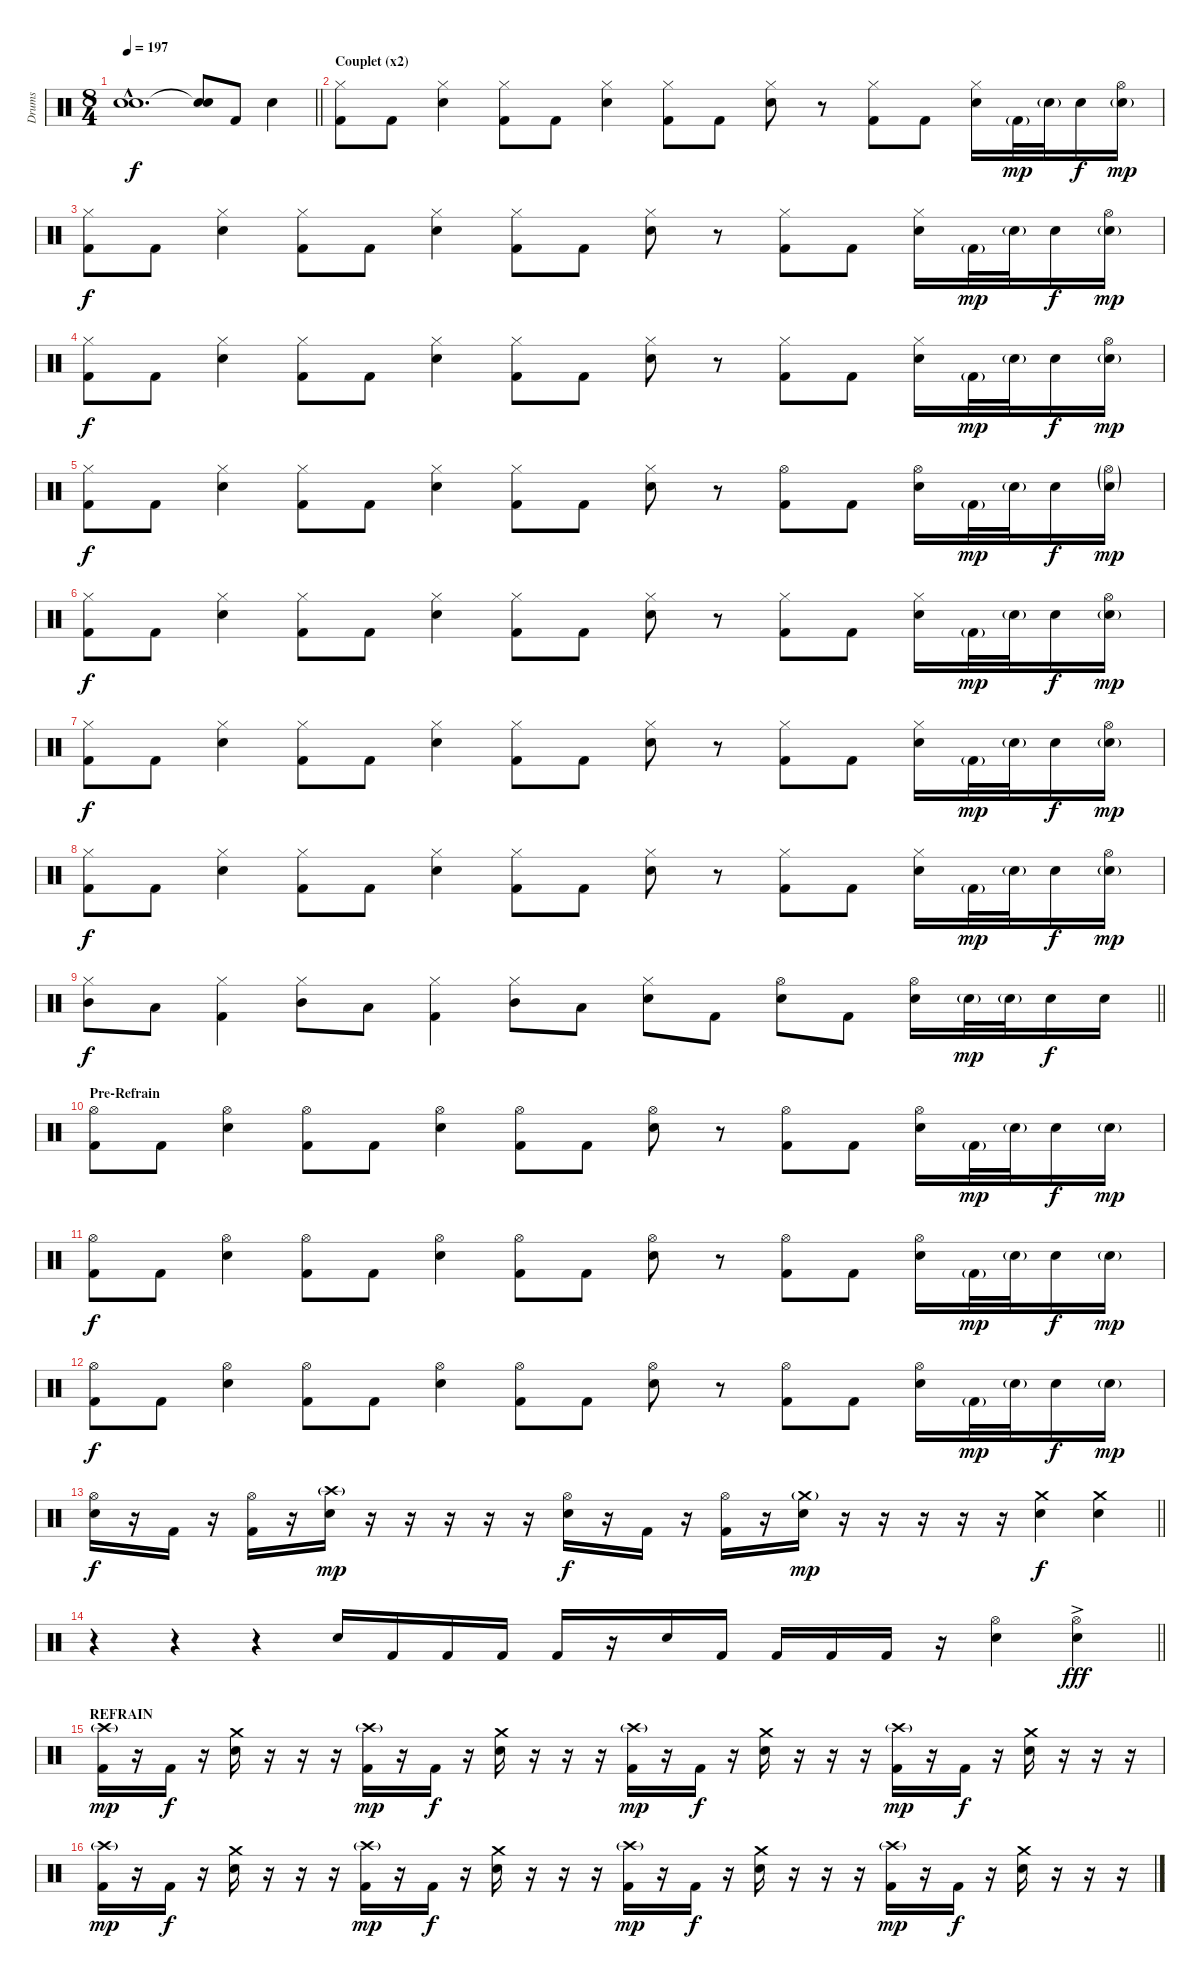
\track ("Drums" "Drums") {instrument percussion}
\staff {score}
\articulation defaults
\ts (8 4)
\tempo 197
\clef neutral
\barLineRight lightlight
\ks c
("Snare (hit)"{hac t} "Snare (hit)"{hac t}).1{d dy f} ("Snare (hit)"{t} "Electric Snare (hit)").8 "Kick (hit) 2".8 "Electric Snare (hit)".4 |
\section ("" "Couplet (x2)")
("Hi-Hat (closed)" "Kick (hit) 2").8 "Kick (hit) 2".8 ("Hi-Hat (closed)" "Electric Snare (hit)").4 ("Hi-Hat (closed)" "Kick (hit) 2").8 "Kick (hit) 2".8 ("Hi-Hat (closed)" "Electric Snare (hit)").4 ("Hi-Hat (closed)" "Kick (hit) 2").8 "Kick (hit) 2".8 ("Hi-Hat (closed)" "Electric Snare (hit)").8 r.8 ("Hi-Hat (closed)" "Kick (hit) 2").8 "Kick (hit) 2".8 ("Hi-Hat (closed)" "Electric Snare (hit)").16 "Kick (hit) 2"{g}.32{dy mp} "Electric Snare (hit)"{g}.32 "Electric Snare (hit)".16{dy f} ("Hi-Hat (open)" "Electric Snare (hit)"{g}).16{dy mp} |
("Hi-Hat (closed)" "Kick (hit) 2").8{dy f} "Kick (hit) 2".8 ("Hi-Hat (closed)" "Electric Snare (hit)").4 ("Hi-Hat (closed)" "Kick (hit) 2").8 "Kick (hit) 2".8 ("Hi-Hat (closed)" "Electric Snare (hit)").4 ("Hi-Hat (closed)" "Kick (hit) 2").8 "Kick (hit) 2".8 ("Hi-Hat (closed)" "Electric Snare (hit)").8 r.8 ("Hi-Hat (closed)" "Kick (hit) 2").8 "Kick (hit) 2".8 ("Hi-Hat (closed)" "Electric Snare (hit)").16 "Kick (hit) 2"{g}.32{dy mp} "Electric Snare (hit)"{g}.32 "Electric Snare (hit)".16{dy f} ("Hi-Hat (open)" "Electric Snare (hit)"{g}).16{dy mp} |
("Hi-Hat (closed)" "Kick (hit) 2").8{dy f} "Kick (hit) 2".8 ("Hi-Hat (closed)" "Electric Snare (hit)").4 ("Hi-Hat (closed)" "Kick (hit) 2").8 "Kick (hit) 2".8 ("Hi-Hat (closed)" "Electric Snare (hit)").4 ("Hi-Hat (closed)" "Kick (hit) 2").8 "Kick (hit) 2".8 ("Hi-Hat (closed)" "Electric Snare (hit)").8 r.8 ("Hi-Hat (closed)" "Kick (hit) 2").8 "Kick (hit) 2".8 ("Hi-Hat (closed)" "Electric Snare (hit)").16 "Kick (hit) 2"{g}.32{dy mp} "Electric Snare (hit)"{g}.32 "Electric Snare (hit)".16{dy f} ("Hi-Hat (open)" "Electric Snare (hit)"{g}).16{dy mp} |
("Hi-Hat (closed)" "Kick (hit) 2").8{dy f} "Kick (hit) 2".8 ("Hi-Hat (closed)" "Electric Snare (hit)").4 ("Hi-Hat (closed)" "Kick (hit) 2").8 "Kick (hit) 2".8 ("Hi-Hat (closed)" "Electric Snare (hit)").4 ("Hi-Hat (closed)" "Kick (hit) 2").8 "Kick (hit) 2".8 ("Hi-Hat (closed)" "Electric Snare (hit)").8 r.8 ("Hi-Hat (open)" "Kick (hit) 2").8 "Kick (hit) 2".8 ("Hi-Hat (open)" "Electric Snare (hit)").16 "Kick (hit) 2"{g}.32{dy mp} "Electric Snare (hit)"{g}.32 "Electric Snare (hit)".16{dy f} ("Hi-Hat (open)"{g} "Electric Snare (hit)"{g}).16{dy mp} |
("Hi-Hat (closed)" "Kick (hit) 2").8{dy f} "Kick (hit) 2".8 ("Hi-Hat (closed)" "Electric Snare (hit)").4 ("Hi-Hat (closed)" "Kick (hit) 2").8 "Kick (hit) 2".8 ("Hi-Hat (closed)" "Electric Snare (hit)").4 ("Hi-Hat (closed)" "Kick (hit) 2").8 "Kick (hit) 2".8 ("Hi-Hat (closed)" "Electric Snare (hit)").8 r.8 ("Hi-Hat (closed)" "Kick (hit) 2").8 "Kick (hit) 2".8 ("Hi-Hat (closed)" "Electric Snare (hit)").16 "Kick (hit) 2"{g}.32{dy mp} "Electric Snare (hit)"{g}.32 "Electric Snare (hit)".16{dy f} ("Hi-Hat (open)" "Electric Snare (hit)"{g}).16{dy mp} |
("Hi-Hat (closed)" "Kick (hit) 2").8{dy f} "Kick (hit) 2".8 ("Hi-Hat (closed)" "Electric Snare (hit)").4 ("Hi-Hat (closed)" "Kick (hit) 2").8 "Kick (hit) 2".8 ("Hi-Hat (closed)" "Electric Snare (hit)").4 ("Hi-Hat (closed)" "Kick (hit) 2").8 "Kick (hit) 2".8 ("Hi-Hat (closed)" "Electric Snare (hit)").8 r.8 ("Hi-Hat (closed)" "Kick (hit) 2").8 "Kick (hit) 2".8 ("Hi-Hat (closed)" "Electric Snare (hit)").16 "Kick (hit) 2"{g}.32{dy mp} "Electric Snare (hit)"{g}.32 "Electric Snare (hit)".16{dy f} ("Hi-Hat (open)" "Electric Snare (hit)"{g}).16{dy mp} |
("Hi-Hat (closed)" "Kick (hit) 2").8{dy f} "Kick (hit) 2".8 ("Hi-Hat (closed)" "Electric Snare (hit)").4 ("Hi-Hat (closed)" "Kick (hit) 2").8 "Kick (hit) 2".8 ("Hi-Hat (closed)" "Electric Snare (hit)").4 ("Hi-Hat (closed)" "Kick (hit) 2").8 "Kick (hit) 2".8 ("Hi-Hat (closed)" "Electric Snare (hit)").8 r.8 ("Hi-Hat (closed)" "Kick (hit) 2").8 "Kick (hit) 2".8 ("Hi-Hat (closed)" "Electric Snare (hit)").16 "Kick (hit) 2"{g}.32{dy mp} "Electric Snare (hit)"{g}.32 "Electric Snare (hit)".16{dy f} ("Hi-Hat (open)" "Electric Snare (hit)"{g}).16{dy mp} |
\barLineRight lightlight
("Hi-Hat (closed)" "Mid Tom (hit)").8{dy f} "Low Floor Tom (hit)".8 ("Hi-Hat (closed)" "Kick (hit) 2").4 ("Hi-Hat (closed)" "Mid Tom (hit)").8 "Low Floor Tom (hit)".8 ("Hi-Hat (closed)" "Kick (hit) 2").4 ("Hi-Hat (closed)" "Mid Tom (hit)").8 "Low Floor Tom (hit)".8 ("Hi-Hat (closed)" "Electric Snare (hit)").8 "Kick (hit) 2".8 ("Hi-Hat (open)" "Electric Snare (hit)").8 "Kick (hit) 2".8 ("Hi-Hat (open)" "Electric Snare (hit)").16 "Electric Snare (hit)"{g}.32{dy mp} "Electric Snare (hit)"{g}.32 "Electric Snare (hit)".16{dy f} "Electric Snare (hit)".16 |
\section ("" "Pre-Refrain")
("Hi-Hat (open)" "Kick (hit) 2").8 "Kick (hit) 2".8 ("Hi-Hat (open)" "Electric Snare (hit)").4 ("Hi-Hat (open)" "Kick (hit) 2").8 "Kick (hit) 2".8 ("Hi-Hat (open)" "Electric Snare (hit)").4 ("Hi-Hat (open)" "Kick (hit) 2").8 "Kick (hit) 2".8 ("Hi-Hat (open)" "Electric Snare (hit)").8 r.8 ("Hi-Hat (open)" "Kick (hit) 2").8 "Kick (hit) 2".8 ("Hi-Hat (open)" "Electric Snare (hit)").16 "Kick (hit) 2"{g}.32{dy mp} "Electric Snare (hit)"{g}.32 "Electric Snare (hit)".16{dy f} "Electric Snare (hit)"{g}.16{dy mp} |
("Hi-Hat (open)" "Kick (hit) 2").8{dy f} "Kick (hit) 2".8 ("Hi-Hat (open)" "Electric Snare (hit)").4 ("Hi-Hat (open)" "Kick (hit) 2").8 "Kick (hit) 2".8 ("Hi-Hat (open)" "Electric Snare (hit)").4 ("Hi-Hat (open)" "Kick (hit) 2").8 "Kick (hit) 2".8 ("Hi-Hat (open)" "Electric Snare (hit)").8 r.8 ("Hi-Hat (open)" "Kick (hit) 2").8 "Kick (hit) 2".8 ("Hi-Hat (open)" "Electric Snare (hit)").16 "Kick (hit) 2"{g}.32{dy mp} "Electric Snare (hit)"{g}.32 "Electric Snare (hit)".16{dy f} "Electric Snare (hit)"{g}.16{dy mp} |
("Hi-Hat (open)" "Kick (hit) 2").8{dy f} "Kick (hit) 2".8 ("Hi-Hat (open)" "Electric Snare (hit)").4 ("Hi-Hat (open)" "Kick (hit) 2").8 "Kick (hit) 2".8 ("Hi-Hat (open)" "Electric Snare (hit)").4 ("Hi-Hat (open)" "Kick (hit) 2").8 "Kick (hit) 2".8 ("Hi-Hat (open)" "Electric Snare (hit)").8 r.8 ("Hi-Hat (open)" "Kick (hit) 2").8 "Kick (hit) 2".8 ("Hi-Hat (open)" "Electric Snare (hit)").16 "Kick (hit) 2"{g}.32{dy mp} "Electric Snare (hit)"{g}.32 "Electric Snare (hit)".16{dy f} "Electric Snare (hit)"{g}.16{dy mp} |
\barLineRight lightlight
("Hi-Hat (open)" "Electric Snare (hit)").16{dy f} r.16 "Kick (hit) 2".16 r.16 ("Hi-Hat (open)" "Kick (hit) 2").16 r.16 ("Crash high (hit)"{g} "Electric Snare (hit)").16{dy mp} r.16 r.16 r.16 r.16 r.16 ("Hi-Hat (open)" "Electric Snare (hit)").16{dy f} r.16 "Kick (hit) 2".16 r.16 ("Hi-Hat (open)" "Kick (hit) 2").16 r.16 ("Crash medium (hit)"{g} "Electric Snare (hit)").16{dy mp} r.16 r.16 r.16 r.16 r.16 ("Crash medium (hit)" "Electric Snare (hit)").4{dy f} ("Crash medium (hit)" "Electric Snare (hit)").4 |
\barLineRight lightlight
r.4 r.4 r.4 "Electric Snare (hit)".16 "Kick (hit) 2".16 "Kick (hit) 2".16 "Kick (hit) 2".16 "Kick (hit) 2".16 r.16 "Electric Snare (hit)".16 "Kick (hit) 2".16 "Kick (hit) 2".16 "Kick (hit) 2".16 "Kick (hit) 2".16 r.16 ("Hi-Hat (open)" "Electric Snare (hit)").4 ("Hi-Hat (open)"{ac} "Electric Snare (hit)"{ac}).4{dy fff} |
\section ("" "REFRAIN")
("Crash high (hit)"{g} "Kick (hit) 2").16{dy mp} r.16 "Kick (hit) 2".16{dy f} r.16 ("Crash medium (hit)" "Electric Snare (hit)").16 r.16 r.16 r.16 ("Crash high (hit)"{g} "Kick (hit) 2").16{dy mp} r.16 "Kick (hit) 2".16{dy f} r.16 ("Crash medium (hit)" "Electric Snare (hit)").16 r.16 r.16 r.16 ("Crash high (hit)"{g} "Kick (hit) 2").16{dy mp} r.16 "Kick (hit) 2".16{dy f} r.16 ("Crash medium (hit)" "Electric Snare (hit)").16 r.16 r.16 r.16 ("Crash high (hit)"{g} "Kick (hit) 2").16{dy mp} r.16 "Kick (hit) 2".16{dy f} r.16 ("Crash medium (hit)" "Electric Snare (hit)").16 r.16 r.16 r.16 |
("Crash high (hit)"{g} "Kick (hit) 2").16{dy mp} r.16 "Kick (hit) 2".16{dy f} r.16 ("Crash medium (hit)" "Electric Snare (hit)").16 r.16 r.16 r.16 ("Crash high (hit)"{g} "Kick (hit) 2").16{dy mp} r.16 "Kick (hit) 2".16{dy f} r.16 ("Crash medium (hit)" "Electric Snare (hit)").16 r.16 r.16 r.16 ("Crash high (hit)"{g} "Kick (hit) 2").16{dy mp} r.16 "Kick (hit) 2".16{dy f} r.16 ("Crash medium (hit)" "Electric Snare (hit)").16 r.16 r.16 r.16 ("Crash high (hit)"{g} "Kick (hit) 2").16{dy mp} r.16 "Kick (hit) 2".16{dy f} r.16 ("Crash medium (hit)" "Electric Snare (hit)").16 r.16 r.16 r.16
